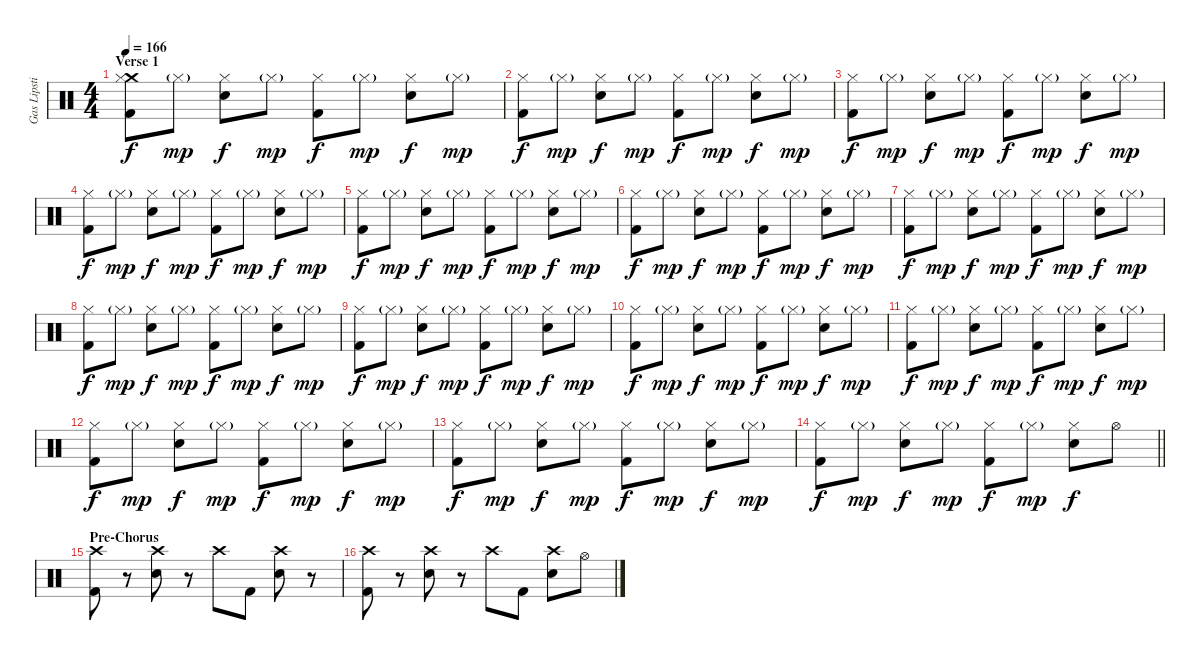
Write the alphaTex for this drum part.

\track ("Gas Lipstick (Drums)" "Gas Lipsti") {instrument percussion}
\staff {score}
\articulation defaults
\ts (4 4)
\section ("" "Verse 1")
\tempo 166
\clef neutral
\ks c
("Crash medium (hit)" "Hi-Hat (closed)" "Kick (hit) 2").8{dy f} "Hi-Hat (closed)"{g}.8{dy mp} ("Hi-Hat (closed)" "Snare (hit) 2").8{dy f} "Hi-Hat (closed)"{g}.8{dy mp} ("Hi-Hat (closed)" "Kick (hit) 2").8{dy f} "Hi-Hat (closed)"{g}.8{dy mp} ("Hi-Hat (closed)" "Snare (hit) 2").8{dy f} "Hi-Hat (closed)"{g}.8{dy mp} |
("Hi-Hat (closed)" "Kick (hit) 2").8{dy f} "Hi-Hat (closed)"{g}.8{dy mp} ("Hi-Hat (closed)" "Snare (hit) 2").8{dy f} "Hi-Hat (closed)"{g}.8{dy mp} ("Hi-Hat (closed)" "Kick (hit) 2").8{dy f} "Hi-Hat (closed)"{g}.8{dy mp} ("Hi-Hat (closed)" "Snare (hit) 2").8{dy f} "Hi-Hat (closed)"{g}.8{dy mp} |
("Hi-Hat (closed)" "Kick (hit) 2").8{dy f} "Hi-Hat (closed)"{g}.8{dy mp} ("Hi-Hat (closed)" "Snare (hit) 2").8{dy f} "Hi-Hat (closed)"{g}.8{dy mp} ("Hi-Hat (closed)" "Kick (hit) 2").8{dy f} "Hi-Hat (closed)"{g}.8{dy mp} ("Hi-Hat (closed)" "Snare (hit) 2").8{dy f} "Hi-Hat (closed)"{g}.8{dy mp} |
("Hi-Hat (closed)" "Kick (hit) 2").8{dy f} "Hi-Hat (closed)"{g}.8{dy mp} ("Hi-Hat (closed)" "Snare (hit) 2").8{dy f} "Hi-Hat (closed)"{g}.8{dy mp} ("Hi-Hat (closed)" "Kick (hit) 2").8{dy f} "Hi-Hat (closed)"{g}.8{dy mp} ("Hi-Hat (closed)" "Snare (hit) 2").8{dy f} "Hi-Hat (closed)"{g}.8{dy mp} |
("Hi-Hat (closed)" "Kick (hit) 2").8{dy f} "Hi-Hat (closed)"{g}.8{dy mp} ("Hi-Hat (closed)" "Snare (hit) 2").8{dy f} "Hi-Hat (closed)"{g}.8{dy mp} ("Hi-Hat (closed)" "Kick (hit) 2").8{dy f} "Hi-Hat (closed)"{g}.8{dy mp} ("Hi-Hat (closed)" "Snare (hit) 2").8{dy f} "Hi-Hat (closed)"{g}.8{dy mp} |
("Hi-Hat (closed)" "Kick (hit) 2").8{dy f} "Hi-Hat (closed)"{g}.8{dy mp} ("Hi-Hat (closed)" "Snare (hit) 2").8{dy f} "Hi-Hat (closed)"{g}.8{dy mp} ("Hi-Hat (closed)" "Kick (hit) 2").8{dy f} "Hi-Hat (closed)"{g}.8{dy mp} ("Hi-Hat (closed)" "Snare (hit) 2").8{dy f} "Hi-Hat (closed)"{g}.8{dy mp} |
("Hi-Hat (closed)" "Kick (hit) 2").8{dy f} "Hi-Hat (closed)"{g}.8{dy mp} ("Hi-Hat (closed)" "Snare (hit) 2").8{dy f} "Hi-Hat (closed)"{g}.8{dy mp} ("Hi-Hat (closed)" "Kick (hit) 2").8{dy f} "Hi-Hat (closed)"{g}.8{dy mp} ("Hi-Hat (closed)" "Snare (hit) 2").8{dy f} "Hi-Hat (closed)"{g}.8{dy mp} |
("Hi-Hat (closed)" "Kick (hit) 2").8{dy f} "Hi-Hat (closed)"{g}.8{dy mp} ("Hi-Hat (closed)" "Snare (hit) 2").8{dy f} "Hi-Hat (closed)"{g}.8{dy mp} ("Hi-Hat (closed)" "Kick (hit) 2").8{dy f} "Hi-Hat (closed)"{g}.8{dy mp} ("Hi-Hat (closed)" "Snare (hit) 2").8{dy f} "Hi-Hat (closed)"{g}.8{dy mp} |
("Hi-Hat (closed)" "Kick (hit) 2").8{dy f} "Hi-Hat (closed)"{g}.8{dy mp} ("Hi-Hat (closed)" "Snare (hit) 2").8{dy f} "Hi-Hat (closed)"{g}.8{dy mp} ("Hi-Hat (closed)" "Kick (hit) 2").8{dy f} "Hi-Hat (closed)"{g}.8{dy mp} ("Hi-Hat (closed)" "Snare (hit) 2").8{dy f} "Hi-Hat (closed)"{g}.8{dy mp} |
("Hi-Hat (closed)" "Kick (hit) 2").8{dy f} "Hi-Hat (closed)"{g}.8{dy mp} ("Hi-Hat (closed)" "Snare (hit) 2").8{dy f} "Hi-Hat (closed)"{g}.8{dy mp} ("Hi-Hat (closed)" "Kick (hit) 2").8{dy f} "Hi-Hat (closed)"{g}.8{dy mp} ("Hi-Hat (closed)" "Snare (hit) 2").8{dy f} "Hi-Hat (closed)"{g}.8{dy mp} |
("Hi-Hat (closed)" "Kick (hit) 2").8{dy f} "Hi-Hat (closed)"{g}.8{dy mp} ("Hi-Hat (closed)" "Snare (hit) 2").8{dy f} "Hi-Hat (closed)"{g}.8{dy mp} ("Hi-Hat (closed)" "Kick (hit) 2").8{dy f} "Hi-Hat (closed)"{g}.8{dy mp} ("Hi-Hat (closed)" "Snare (hit) 2").8{dy f} "Hi-Hat (closed)"{g}.8{dy mp} |
("Hi-Hat (closed)" "Kick (hit) 2").8{dy f} "Hi-Hat (closed)"{g}.8{dy mp} ("Hi-Hat (closed)" "Snare (hit) 2").8{dy f} "Hi-Hat (closed)"{g}.8{dy mp} ("Hi-Hat (closed)" "Kick (hit) 2").8{dy f} "Hi-Hat (closed)"{g}.8{dy mp} ("Hi-Hat (closed)" "Snare (hit) 2").8{dy f} "Hi-Hat (closed)"{g}.8{dy mp} |
("Hi-Hat (closed)" "Kick (hit) 2").8{dy f} "Hi-Hat (closed)"{g}.8{dy mp} ("Hi-Hat (closed)" "Snare (hit) 2").8{dy f} "Hi-Hat (closed)"{g}.8{dy mp} ("Hi-Hat (closed)" "Kick (hit) 2").8{dy f} "Hi-Hat (closed)"{g}.8{dy mp} ("Hi-Hat (closed)" "Snare (hit) 2").8{dy f} "Hi-Hat (closed)"{g}.8{dy mp} |
\barLineRight lightlight
("Hi-Hat (closed)" "Kick (hit) 2").8{dy f} "Hi-Hat (closed)"{g}.8{dy mp} ("Hi-Hat (closed)" "Snare (hit) 2").8{dy f} "Hi-Hat (closed)"{g}.8{dy mp} ("Hi-Hat (closed)" "Kick (hit) 2").8{dy f} "Hi-Hat (closed)"{g}.8{dy mp} ("Hi-Hat (closed)" "Snare (hit) 2").8{dy f} "Hi-Hat (open)".8 |
\section ("" "Pre-Chorus")
("Crash high (hit)" "Kick (hit) 2").8 r.8 ("Crash high (hit)" "Snare (hit) 2").8 r.8 "Crash high (hit)".8 "Kick (hit) 2".8 ("Crash high (hit)" "Snare (hit) 2").8 r.8 |
("Crash high (hit)" "Kick (hit) 2").8 r.8 ("Crash high (hit)" "Snare (hit) 2").8 r.8 "Crash high (hit)".8 "Kick (hit) 2".8 ("Crash high (hit)" "Snare (hit) 2").8 "Hi-Hat (open)".8
